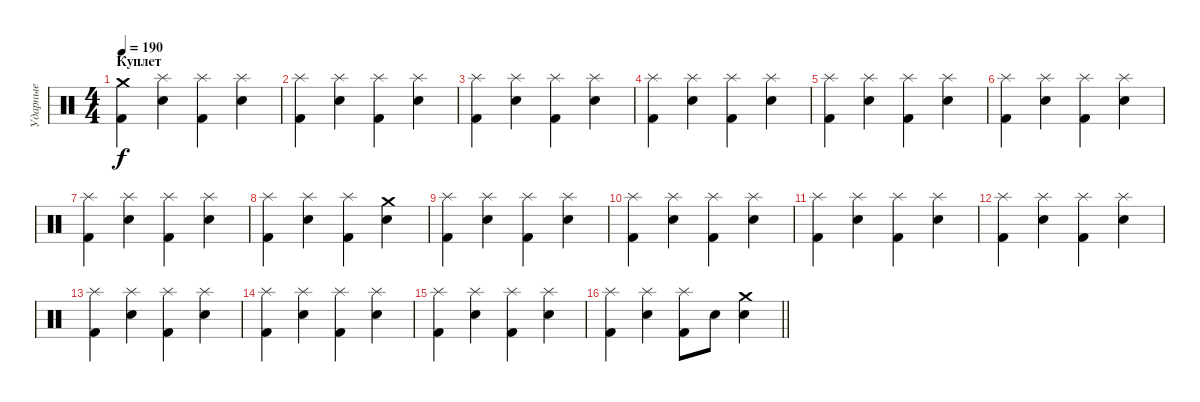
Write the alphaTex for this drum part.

\track ("Ударные" "Ударные") {instrument percussion}
\staff {score}
\articulation defaults
\ts (4 4)
\section ("" "Куплет")
\tempo 190
\clef neutral
\ks c
("Crash medium (hit)" "Kick (hit) 2").4{dy f} ("Splash (hit)" "Electric Snare (hit)").4 ("Splash (hit)" "Kick (hit) 2").4 ("Splash (hit)" "Electric Snare (hit)").4 |
("Splash (hit)" "Kick (hit) 2").4 ("Splash (hit)" "Electric Snare (hit)").4 ("Splash (hit)" "Kick (hit) 2").4 ("Splash (hit)" "Electric Snare (hit)").4 |
("Splash (hit)" "Kick (hit) 2").4 ("Splash (hit)" "Electric Snare (hit)").4 ("Splash (hit)" "Kick (hit) 2").4 ("Splash (hit)" "Electric Snare (hit)").4 |
("Splash (hit)" "Kick (hit) 2").4 ("Splash (hit)" "Electric Snare (hit)").4 ("Splash (hit)" "Kick (hit) 2").4 ("Splash (hit)" "Electric Snare (hit)").4 |
("Splash (hit)" "Kick (hit) 2").4 ("Splash (hit)" "Electric Snare (hit)").4 ("Splash (hit)" "Kick (hit) 2").4 ("Splash (hit)" "Electric Snare (hit)").4 |
("Splash (hit)" "Kick (hit) 2").4 ("Splash (hit)" "Electric Snare (hit)").4 ("Splash (hit)" "Kick (hit) 2").4 ("Splash (hit)" "Electric Snare (hit)").4 |
("Splash (hit)" "Kick (hit) 2").4 ("Splash (hit)" "Electric Snare (hit)").4 ("Splash (hit)" "Kick (hit) 2").4 ("Splash (hit)" "Electric Snare (hit)").4 |
("Splash (hit)" "Kick (hit) 2").4 ("Splash (hit)" "Electric Snare (hit)").4 ("Splash (hit)" "Kick (hit) 2").4 ("Crash medium (hit)" "Electric Snare (hit)").4 |
("Splash (hit)" "Kick (hit) 2").4 ("Splash (hit)" "Electric Snare (hit)").4 ("Splash (hit)" "Kick (hit) 2").4 ("Splash (hit)" "Electric Snare (hit)").4 |
("Splash (hit)" "Kick (hit) 2").4 ("Splash (hit)" "Electric Snare (hit)").4 ("Splash (hit)" "Kick (hit) 2").4 ("Splash (hit)" "Electric Snare (hit)").4 |
("Splash (hit)" "Kick (hit) 2").4 ("Splash (hit)" "Electric Snare (hit)").4 ("Splash (hit)" "Kick (hit) 2").4 ("Splash (hit)" "Electric Snare (hit)").4 |
("Splash (hit)" "Kick (hit) 2").4 ("Splash (hit)" "Electric Snare (hit)").4 ("Splash (hit)" "Kick (hit) 2").4 ("Splash (hit)" "Electric Snare (hit)").4 |
("Splash (hit)" "Kick (hit) 2").4 ("Splash (hit)" "Electric Snare (hit)").4 ("Splash (hit)" "Kick (hit) 2").4 ("Splash (hit)" "Electric Snare (hit)").4 |
("Splash (hit)" "Kick (hit) 2").4 ("Splash (hit)" "Electric Snare (hit)").4 ("Splash (hit)" "Kick (hit) 2").4 ("Splash (hit)" "Electric Snare (hit)").4 |
("Splash (hit)" "Kick (hit) 2").4 ("Splash (hit)" "Electric Snare (hit)").4 ("Splash (hit)" "Kick (hit) 2").4 ("Splash (hit)" "Electric Snare (hit)").4 |
\barLineRight lightlight
("Splash (hit)" "Kick (hit) 2").4 ("Splash (hit)" "Electric Snare (hit)").4 ("Splash (hit)" "Kick (hit) 2").8 "Electric Snare (hit)".8 ("Crash medium (hit)" "Electric Snare (hit)").4
